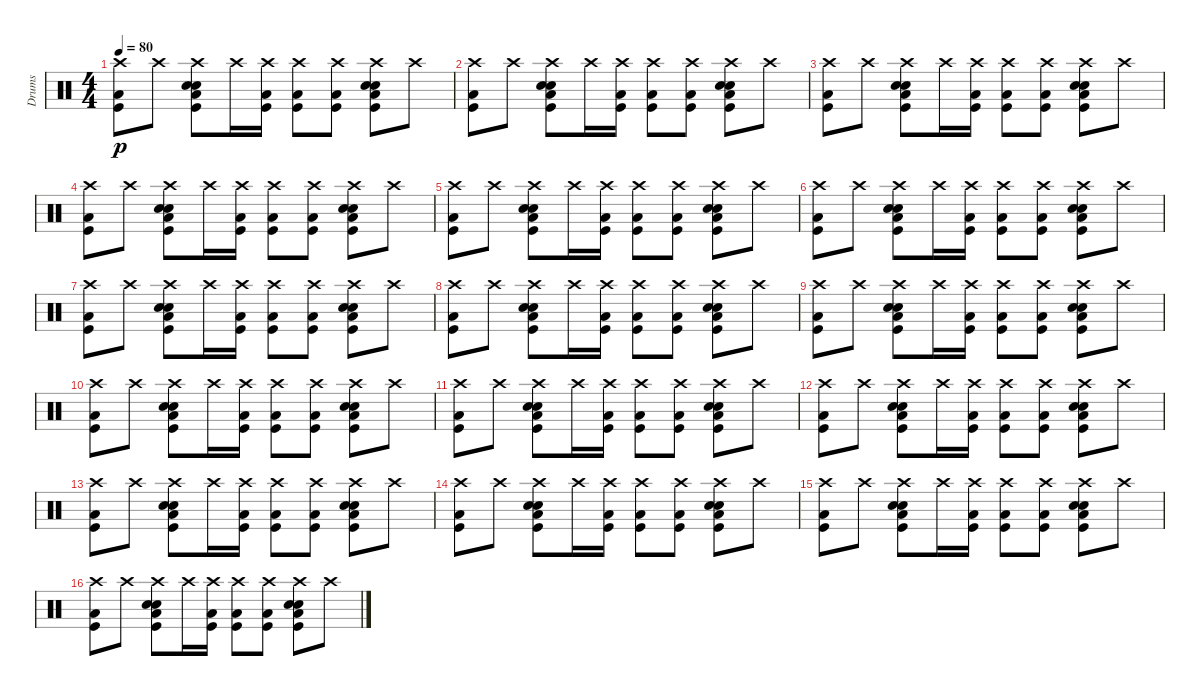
\track ("Drums" "Drums") {instrument percussion}
\staff {score}
\articulation defaults
\ts (4 4)
\tempo 80
\clef neutral
\ks c
("Crash high (hit)" "Low Tom (hit)" "Kick (hit)").8{dy p} "Crash high (hit)".8 ("Crash high (hit)" "Low Tom (hit)" "Electric Snare (hit)" "Snare (hit) 2" "Kick (hit)").8 "Crash high (hit)".16 ("Crash high (hit)" "Low Tom (hit)" "Kick (hit)").16 ("Crash high (hit)" "Low Tom (hit)" "Kick (hit)").8 ("Crash high (hit)" "Low Tom (hit)" "Kick (hit)").8 ("Crash high (hit)" "Low Tom (hit)" "Electric Snare (hit)" "Snare (hit) 2" "Kick (hit)").8 "Crash high (hit)".8 |
("Crash high (hit)" "Low Tom (hit)" "Kick (hit)").8 "Crash high (hit)".8 ("Crash high (hit)" "Low Tom (hit)" "Electric Snare (hit)" "Snare (hit) 2" "Kick (hit)").8 "Crash high (hit)".16 ("Crash high (hit)" "Low Tom (hit)" "Kick (hit)").16 ("Crash high (hit)" "Low Tom (hit)" "Kick (hit)").8 ("Crash high (hit)" "Low Tom (hit)" "Kick (hit)").8 ("Crash high (hit)" "Low Tom (hit)" "Electric Snare (hit)" "Snare (hit) 2" "Kick (hit)").8 "Crash high (hit)".8 |
("Crash high (hit)" "Low Tom (hit)" "Kick (hit)").8 "Crash high (hit)".8 ("Crash high (hit)" "Low Tom (hit)" "Electric Snare (hit)" "Snare (hit) 2" "Kick (hit)").8 "Crash high (hit)".16 ("Crash high (hit)" "Low Tom (hit)" "Kick (hit)").16 ("Crash high (hit)" "Low Tom (hit)" "Kick (hit)").8 ("Crash high (hit)" "Low Tom (hit)" "Kick (hit)").8 ("Crash high (hit)" "Low Tom (hit)" "Electric Snare (hit)" "Snare (hit) 2" "Kick (hit)").8 "Crash high (hit)".8 |
("Crash high (hit)" "Low Tom (hit)" "Kick (hit)").8 "Crash high (hit)".8 ("Crash high (hit)" "Low Tom (hit)" "Electric Snare (hit)" "Snare (hit) 2" "Kick (hit)").8 "Crash high (hit)".16 ("Crash high (hit)" "Low Tom (hit)" "Kick (hit)").16 ("Crash high (hit)" "Low Tom (hit)" "Kick (hit)").8 ("Crash high (hit)" "Low Tom (hit)" "Kick (hit)").8 ("Crash high (hit)" "Low Tom (hit)" "Electric Snare (hit)" "Snare (hit) 2" "Kick (hit)").8 "Crash high (hit)".8 |
("Crash high (hit)" "Low Tom (hit)" "Kick (hit)").8 "Crash high (hit)".8 ("Crash high (hit)" "Low Tom (hit)" "Electric Snare (hit)" "Snare (hit) 2" "Kick (hit)").8 "Crash high (hit)".16 ("Crash high (hit)" "Low Tom (hit)" "Kick (hit)").16 ("Crash high (hit)" "Low Tom (hit)" "Kick (hit)").8 ("Crash high (hit)" "Low Tom (hit)" "Kick (hit)").8 ("Crash high (hit)" "Low Tom (hit)" "Electric Snare (hit)" "Snare (hit) 2" "Kick (hit)").8 "Crash high (hit)".8 |
("Crash high (hit)" "Low Tom (hit)" "Kick (hit)").8 "Crash high (hit)".8 ("Crash high (hit)" "Low Tom (hit)" "Electric Snare (hit)" "Snare (hit) 2" "Kick (hit)").8 "Crash high (hit)".16 ("Crash high (hit)" "Low Tom (hit)" "Kick (hit)").16 ("Crash high (hit)" "Low Tom (hit)" "Kick (hit)").8 ("Crash high (hit)" "Low Tom (hit)" "Kick (hit)").8 ("Crash high (hit)" "Low Tom (hit)" "Electric Snare (hit)" "Snare (hit) 2" "Kick (hit)").8 "Crash high (hit)".8 |
("Crash high (hit)" "Low Tom (hit)" "Kick (hit)").8 "Crash high (hit)".8 ("Crash high (hit)" "Low Tom (hit)" "Electric Snare (hit)" "Snare (hit) 2" "Kick (hit)").8 "Crash high (hit)".16 ("Crash high (hit)" "Low Tom (hit)" "Kick (hit)").16 ("Crash high (hit)" "Low Tom (hit)" "Kick (hit)").8 ("Crash high (hit)" "Low Tom (hit)" "Kick (hit)").8 ("Crash high (hit)" "Low Tom (hit)" "Electric Snare (hit)" "Snare (hit) 2" "Kick (hit)").8 "Crash high (hit)".8 |
("Crash high (hit)" "Low Tom (hit)" "Kick (hit)").8 "Crash high (hit)".8 ("Crash high (hit)" "Low Tom (hit)" "Electric Snare (hit)" "Snare (hit) 2" "Kick (hit)").8 "Crash high (hit)".16 ("Crash high (hit)" "Low Tom (hit)" "Kick (hit)").16 ("Crash high (hit)" "Low Tom (hit)" "Kick (hit)").8 ("Crash high (hit)" "Low Tom (hit)" "Kick (hit)").8 ("Crash high (hit)" "Low Tom (hit)" "Electric Snare (hit)" "Snare (hit) 2" "Kick (hit)").8 "Crash high (hit)".8 |
("Crash high (hit)" "Low Tom (hit)" "Kick (hit)").8 "Crash high (hit)".8 ("Crash high (hit)" "Low Tom (hit)" "Electric Snare (hit)" "Snare (hit) 2" "Kick (hit)").8 "Crash high (hit)".16 ("Crash high (hit)" "Low Tom (hit)" "Kick (hit)").16 ("Crash high (hit)" "Low Tom (hit)" "Kick (hit)").8 ("Crash high (hit)" "Low Tom (hit)" "Kick (hit)").8 ("Crash high (hit)" "Low Tom (hit)" "Electric Snare (hit)" "Snare (hit) 2" "Kick (hit)").8 "Crash high (hit)".8 |
("Crash high (hit)" "Low Tom (hit)" "Kick (hit)").8 "Crash high (hit)".8 ("Crash high (hit)" "Low Tom (hit)" "Electric Snare (hit)" "Snare (hit) 2" "Kick (hit)").8 "Crash high (hit)".16 ("Crash high (hit)" "Low Tom (hit)" "Kick (hit)").16 ("Crash high (hit)" "Low Tom (hit)" "Kick (hit)").8 ("Crash high (hit)" "Low Tom (hit)" "Kick (hit)").8 ("Crash high (hit)" "Low Tom (hit)" "Electric Snare (hit)" "Snare (hit) 2" "Kick (hit)").8 "Crash high (hit)".8 |
("Crash high (hit)" "Low Tom (hit)" "Kick (hit)").8 "Crash high (hit)".8 ("Crash high (hit)" "Low Tom (hit)" "Electric Snare (hit)" "Snare (hit) 2" "Kick (hit)").8 "Crash high (hit)".16 ("Crash high (hit)" "Low Tom (hit)" "Kick (hit)").16 ("Crash high (hit)" "Low Tom (hit)" "Kick (hit)").8 ("Crash high (hit)" "Low Tom (hit)" "Kick (hit)").8 ("Crash high (hit)" "Low Tom (hit)" "Electric Snare (hit)" "Snare (hit) 2" "Kick (hit)").8 "Crash high (hit)".8 |
("Crash high (hit)" "Low Tom (hit)" "Kick (hit)").8 "Crash high (hit)".8 ("Crash high (hit)" "Low Tom (hit)" "Electric Snare (hit)" "Snare (hit) 2" "Kick (hit)").8 "Crash high (hit)".16 ("Crash high (hit)" "Low Tom (hit)" "Kick (hit)").16 ("Crash high (hit)" "Low Tom (hit)" "Kick (hit)").8 ("Crash high (hit)" "Low Tom (hit)" "Kick (hit)").8 ("Crash high (hit)" "Low Tom (hit)" "Electric Snare (hit)" "Snare (hit) 2" "Kick (hit)").8 "Crash high (hit)".8 |
("Crash high (hit)" "Low Tom (hit)" "Kick (hit)").8 "Crash high (hit)".8 ("Crash high (hit)" "Low Tom (hit)" "Electric Snare (hit)" "Snare (hit) 2" "Kick (hit)").8 "Crash high (hit)".16 ("Crash high (hit)" "Low Tom (hit)" "Kick (hit)").16 ("Crash high (hit)" "Low Tom (hit)" "Kick (hit)").8 ("Crash high (hit)" "Low Tom (hit)" "Kick (hit)").8 ("Crash high (hit)" "Low Tom (hit)" "Electric Snare (hit)" "Snare (hit) 2" "Kick (hit)").8 "Crash high (hit)".8 |
("Crash high (hit)" "Low Tom (hit)" "Kick (hit)").8 "Crash high (hit)".8 ("Crash high (hit)" "Low Tom (hit)" "Electric Snare (hit)" "Snare (hit) 2" "Kick (hit)").8 "Crash high (hit)".16 ("Crash high (hit)" "Low Tom (hit)" "Kick (hit)").16 ("Crash high (hit)" "Low Tom (hit)" "Kick (hit)").8 ("Crash high (hit)" "Low Tom (hit)" "Kick (hit)").8 ("Crash high (hit)" "Low Tom (hit)" "Electric Snare (hit)" "Snare (hit) 2" "Kick (hit)").8 "Crash high (hit)".8 |
("Crash high (hit)" "Low Tom (hit)" "Kick (hit)").8 "Crash high (hit)".8 ("Crash high (hit)" "Low Tom (hit)" "Electric Snare (hit)" "Snare (hit) 2" "Kick (hit)").8 "Crash high (hit)".16 ("Crash high (hit)" "Low Tom (hit)" "Kick (hit)").16 ("Crash high (hit)" "Low Tom (hit)" "Kick (hit)").8 ("Crash high (hit)" "Low Tom (hit)" "Kick (hit)").8 ("Crash high (hit)" "Low Tom (hit)" "Electric Snare (hit)" "Snare (hit) 2" "Kick (hit)").8 "Crash high (hit)".8 |
("Crash high (hit)" "Low Tom (hit)" "Kick (hit)").8 "Crash high (hit)".8 ("Crash high (hit)" "Low Tom (hit)" "Electric Snare (hit)" "Snare (hit) 2" "Kick (hit)").8 "Crash high (hit)".16 ("Crash high (hit)" "Low Tom (hit)" "Kick (hit)").16 ("Crash high (hit)" "Low Tom (hit)" "Kick (hit)").8 ("Crash high (hit)" "Low Tom (hit)" "Kick (hit)").8 ("Crash high (hit)" "Low Tom (hit)" "Electric Snare (hit)" "Snare (hit) 2" "Kick (hit)").8 "Crash high (hit)".8
